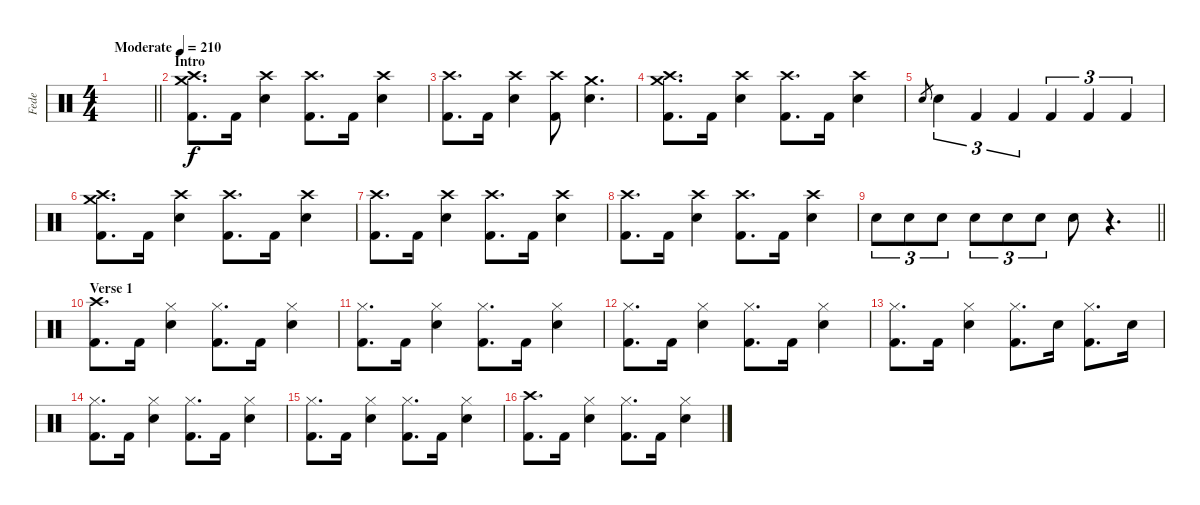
\track ("Fede" "Fede") {instrument percussion}
\staff {score}
\articulation defaults
\ts (4 4)
\tempo (210 "Moderate")
\clef neutral
\barLineRight lightlight
\ks c
|
\section ("" "Intro")
("Crash high (hit)" "Crash medium (hit)" "Kick (hit) 2").8{d} "Kick (hit) 2".16 ("Crash high (hit)" "Snare (hit) 2").4 ("Crash high (hit)" "Kick (hit) 2").8{d} "Kick (hit) 2".16 ("Crash high (hit)" "Snare (hit) 2").4 |
("Crash high (hit)" "Kick (hit) 2").8{d} "Kick (hit) 2".16 ("Crash high (hit)" "Snare (hit) 2").4 ("Crash high (hit)" "Kick (hit) 2").8 ("Crash medium (hit)" "Snare (hit) 2").4{d} |
("Crash high (hit)" "Crash medium (hit)" "Kick (hit) 2").8{d} "Kick (hit) 2".16 ("Crash high (hit)" "Snare (hit) 2").4 ("Crash high (hit)" "Kick (hit) 2").8{d} "Kick (hit) 2".16 ("Crash high (hit)" "Snare (hit) 2").4 |
"Snare (hit) 2".8{gr} "Snare (hit) 2".4{tu (3 2)} "Kick (hit) 2".4{tu (3 2)} "Kick (hit) 2".4{tu (3 2)} "Kick (hit) 2".4{tu (3 2)} "Kick (hit) 2".4{tu (3 2)} "Kick (hit) 2".4{tu (3 2)} |
("Crash high (hit)" "Crash medium (hit)" "Kick (hit) 2").8{d} "Kick (hit) 2".16 ("Crash high (hit)" "Snare (hit) 2").4 ("Crash high (hit)" "Kick (hit) 2").8{d} "Kick (hit) 2".16 ("Crash high (hit)" "Snare (hit) 2").4 |
("Crash high (hit)" "Kick (hit) 2").8{d} "Kick (hit) 2".16 ("Crash high (hit)" "Snare (hit) 2").4 ("Crash high (hit)" "Kick (hit) 2").8{d} "Kick (hit) 2".16 ("Crash high (hit)" "Snare (hit) 2").4 |
("Crash high (hit)" "Kick (hit) 2").8{d} "Kick (hit) 2".16 ("Crash high (hit)" "Snare (hit) 2").4 ("Crash high (hit)" "Kick (hit) 2").8{d} "Kick (hit) 2".16 ("Crash high (hit)" "Snare (hit) 2").4 |
\barLineRight lightlight "Snare (hit) 2".8{tu (3 2)} "Snare (hit) 2".8{tu (3 2)} "Snare (hit) 2".8{tu (3 2)} "Snare (hit) 2".8{tu (3 2)} "Snare (hit) 2".8{tu (3 2)} "Snare (hit) 2".8{tu (3 2)} "Snare (hit) 2".8
r.4{d} |
\section ("" "Verse 1")
("Crash high (hit)" "Kick (hit) 2").8{d} "Kick (hit) 2".16 ("Hi-Hat (closed)" "Snare (hit) 2").4 ("Hi-Hat (closed)" "Kick (hit) 2").8{d} "Kick (hit) 2".16 ("Hi-Hat (closed)" "Snare (hit) 2").4 |
("Hi-Hat (closed)" "Kick (hit) 2").8{d} "Kick (hit) 2".16 ("Hi-Hat (closed)" "Snare (hit) 2").4 ("Hi-Hat (closed)" "Kick (hit) 2").8{d} "Kick (hit) 2".16 ("Hi-Hat (closed)" "Snare (hit) 2").4 |
("Hi-Hat (closed)" "Kick (hit) 2").8{d} "Kick (hit) 2".16 ("Hi-Hat (closed)" "Snare (hit) 2").4 ("Hi-Hat (closed)" "Kick (hit) 2").8{d} "Kick (hit) 2".16 ("Hi-Hat (closed)" "Snare (hit) 2").4 |
("Hi-Hat (closed)" "Kick (hit) 2").8{d} "Kick (hit) 2".16 ("Hi-Hat (closed)" "Snare (hit) 2").4 ("Hi-Hat (closed)" "Kick (hit) 2").8{d} "Snare (hit) 2".16 ("Hi-Hat (closed)" "Kick (hit) 2").8{d} "Snare (hit) 2".16 |
("Hi-Hat (closed)" "Kick (hit) 2").8{d} "Kick (hit) 2".16 ("Hi-Hat (closed)" "Snare (hit) 2").4 ("Hi-Hat (closed)" "Kick (hit) 2").8{d} "Kick (hit) 2".16 ("Hi-Hat (closed)" "Snare (hit) 2").4 |
("Hi-Hat (closed)" "Kick (hit) 2").8{d} "Kick (hit) 2".16 ("Hi-Hat (closed)" "Snare (hit) 2").4 ("Hi-Hat (closed)" "Kick (hit) 2").8{d} "Kick (hit) 2".16 ("Hi-Hat (closed)" "Snare (hit) 2").4 |
("Crash high (hit)" "Kick (hit) 2").8{d} "Kick (hit) 2".16 ("Hi-Hat (closed)" "Snare (hit) 2").4 ("Hi-Hat (closed)" "Kick (hit) 2").8{d} "Kick (hit) 2".16 ("Hi-Hat (closed)" "Snare (hit) 2").4
